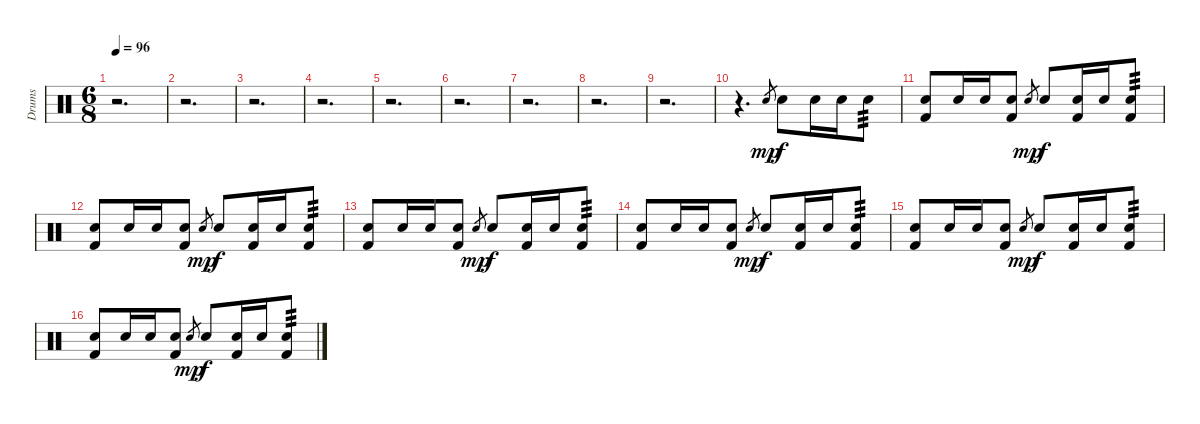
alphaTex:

\track ("Drums" "Drums") {instrument percussion}
\staff {score}
\articulation defaults
\ts (6 8)
\tempo 96
\clef neutral
\ks c
r.2{d dy f} |
r.2{d} |
r.2{d} |
r.2{d} |
r.2{d} |
r.2{d} |
r.2{d} |
r.2{d} |
r.2{d} |
r.4{d} "Snare (hit) 2".8{gr dy mp} "Snare (hit) 2".8{dy f} "Snare (hit) 2".16 "Snare (hit) 2".16 "Snare (hit) 2".8{tp 3} |
("Snare (hit) 2" "Kick (hit) 2").8 "Snare (hit) 2".16 "Snare (hit) 2".16 ("Snare (hit) 2" "Kick (hit) 2").8 "Snare (hit) 2".8{gr dy mp} "Snare (hit) 2".8{dy f} ("Snare (hit) 2" "Kick (hit) 2").16 "Snare (hit) 2".16 ("Snare (hit) 2" "Kick (hit) 2").8{tp 3} |
("Snare (hit) 2" "Kick (hit) 2").8 "Snare (hit) 2".16 "Snare (hit) 2".16 ("Snare (hit) 2" "Kick (hit) 2").8 "Snare (hit) 2".8{gr dy mp} "Snare (hit) 2".8{dy f} ("Snare (hit) 2" "Kick (hit) 2").16 "Snare (hit) 2".16 ("Snare (hit) 2" "Kick (hit) 2").8{tp 3} |
("Snare (hit) 2" "Kick (hit) 2").8 "Snare (hit) 2".16 "Snare (hit) 2".16 ("Snare (hit) 2" "Kick (hit) 2").8 "Snare (hit) 2".8{gr dy mp} "Snare (hit) 2".8{dy f} ("Snare (hit) 2" "Kick (hit) 2").16 "Snare (hit) 2".16 ("Snare (hit) 2" "Kick (hit) 2").8{tp 3} |
("Snare (hit) 2" "Kick (hit) 2").8 "Snare (hit) 2".16 "Snare (hit) 2".16 ("Snare (hit) 2" "Kick (hit) 2").8 "Snare (hit) 2".8{gr dy mp} "Snare (hit) 2".8{dy f} ("Snare (hit) 2" "Kick (hit) 2").16 "Snare (hit) 2".16 ("Snare (hit) 2" "Kick (hit) 2").8{tp 3} |
("Snare (hit) 2" "Kick (hit) 2").8 "Snare (hit) 2".16 "Snare (hit) 2".16 ("Snare (hit) 2" "Kick (hit) 2").8 "Snare (hit) 2".8{gr dy mp} "Snare (hit) 2".8{dy f} ("Snare (hit) 2" "Kick (hit) 2").16 "Snare (hit) 2".16 ("Snare (hit) 2" "Kick (hit) 2").8{tp 3} |
("Snare (hit) 2" "Kick (hit) 2").8 "Snare (hit) 2".16 "Snare (hit) 2".16 ("Snare (hit) 2" "Kick (hit) 2").8 "Snare (hit) 2".8{gr dy mp} "Snare (hit) 2".8{dy f} ("Snare (hit) 2" "Kick (hit) 2").16 "Snare (hit) 2".16 ("Snare (hit) 2" "Kick (hit) 2").8{tp 3}
